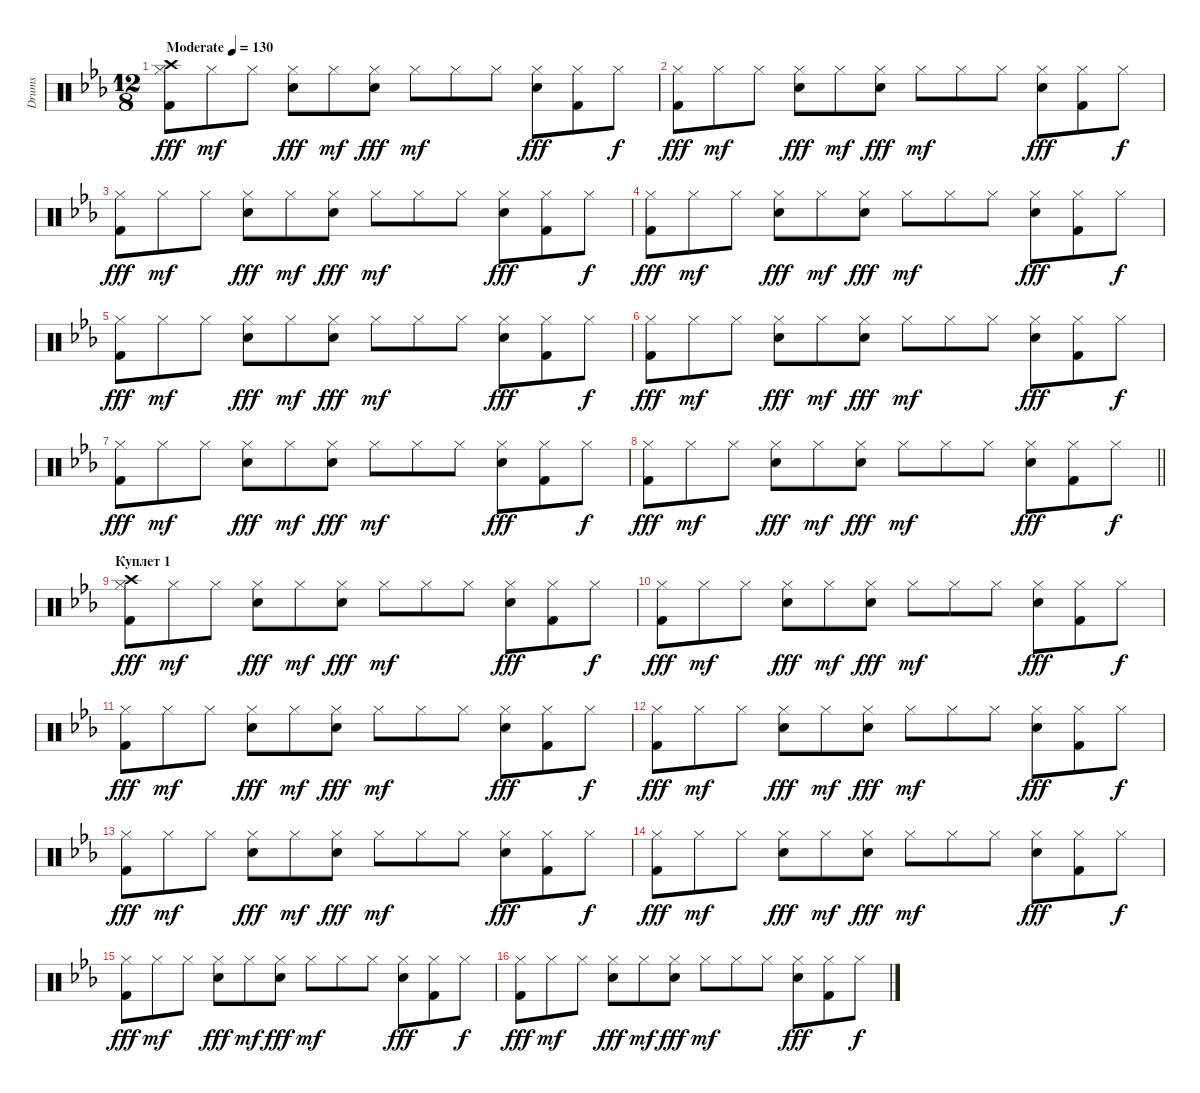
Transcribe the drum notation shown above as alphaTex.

\track ("Drums" "Drums") {instrument percussion}
\staff {score}
\articulation defaults
\ts (12 8)
\tempo (130 "Moderate")
\clef neutral
\ks cminor
("Crash high (hit)" "Hi-Hat (closed)" "Kick (hit) 2").8{dy fff} "Hi-Hat (closed)".8{dy mf} "Hi-Hat (closed)".8 ("Hi-Hat (closed)" "Electric Snare (hit)").8{dy fff} "Hi-Hat (closed)".8{dy mf} ("Hi-Hat (closed)" "Electric Snare (hit)").8{dy fff} "Hi-Hat (closed)".8{dy mf} "Hi-Hat (closed)".8 "Hi-Hat (closed)".8 ("Hi-Hat (closed)" "Electric Snare (hit)").8{dy fff} ("Hi-Hat (closed)" "Kick (hit) 2").8 "Hi-Hat (closed)".8{dy f} |
("Hi-Hat (closed)" "Kick (hit) 2").8{dy fff} "Hi-Hat (closed)".8{dy mf} "Hi-Hat (closed)".8 ("Hi-Hat (closed)" "Electric Snare (hit)").8{dy fff} "Hi-Hat (closed)".8{dy mf} ("Hi-Hat (closed)" "Electric Snare (hit)").8{dy fff} "Hi-Hat (closed)".8{dy mf} "Hi-Hat (closed)".8 "Hi-Hat (closed)".8 ("Hi-Hat (closed)" "Electric Snare (hit)").8{dy fff} ("Hi-Hat (closed)" "Kick (hit) 2").8 "Hi-Hat (closed)".8{dy f} |
("Hi-Hat (closed)" "Kick (hit) 2").8{dy fff} "Hi-Hat (closed)".8{dy mf} "Hi-Hat (closed)".8 ("Hi-Hat (closed)" "Electric Snare (hit)").8{dy fff} "Hi-Hat (closed)".8{dy mf} ("Hi-Hat (closed)" "Electric Snare (hit)").8{dy fff} "Hi-Hat (closed)".8{dy mf} "Hi-Hat (closed)".8 "Hi-Hat (closed)".8 ("Hi-Hat (closed)" "Electric Snare (hit)").8{dy fff} ("Hi-Hat (closed)" "Kick (hit) 2").8 "Hi-Hat (closed)".8{dy f} |
("Hi-Hat (closed)" "Kick (hit) 2").8{dy fff} "Hi-Hat (closed)".8{dy mf} "Hi-Hat (closed)".8 ("Hi-Hat (closed)" "Electric Snare (hit)").8{dy fff} "Hi-Hat (closed)".8{dy mf} ("Hi-Hat (closed)" "Electric Snare (hit)").8{dy fff} "Hi-Hat (closed)".8{dy mf} "Hi-Hat (closed)".8 "Hi-Hat (closed)".8 ("Hi-Hat (closed)" "Electric Snare (hit)").8{dy fff} ("Hi-Hat (closed)" "Kick (hit) 2").8 "Hi-Hat (closed)".8{dy f} |
("Hi-Hat (closed)" "Kick (hit) 2").8{dy fff} "Hi-Hat (closed)".8{dy mf} "Hi-Hat (closed)".8 ("Hi-Hat (closed)" "Electric Snare (hit)").8{dy fff} "Hi-Hat (closed)".8{dy mf} ("Hi-Hat (closed)" "Electric Snare (hit)").8{dy fff} "Hi-Hat (closed)".8{dy mf} "Hi-Hat (closed)".8 "Hi-Hat (closed)".8 ("Hi-Hat (closed)" "Electric Snare (hit)").8{dy fff} ("Hi-Hat (closed)" "Kick (hit) 2").8 "Hi-Hat (closed)".8{dy f} |
("Hi-Hat (closed)" "Kick (hit) 2").8{dy fff} "Hi-Hat (closed)".8{dy mf} "Hi-Hat (closed)".8 ("Hi-Hat (closed)" "Electric Snare (hit)").8{dy fff} "Hi-Hat (closed)".8{dy mf} ("Hi-Hat (closed)" "Electric Snare (hit)").8{dy fff} "Hi-Hat (closed)".8{dy mf} "Hi-Hat (closed)".8 "Hi-Hat (closed)".8 ("Hi-Hat (closed)" "Electric Snare (hit)").8{dy fff} ("Hi-Hat (closed)" "Kick (hit) 2").8 "Hi-Hat (closed)".8{dy f} |
("Hi-Hat (closed)" "Kick (hit) 2").8{dy fff} "Hi-Hat (closed)".8{dy mf} "Hi-Hat (closed)".8 ("Hi-Hat (closed)" "Electric Snare (hit)").8{dy fff} "Hi-Hat (closed)".8{dy mf} ("Hi-Hat (closed)" "Electric Snare (hit)").8{dy fff} "Hi-Hat (closed)".8{dy mf} "Hi-Hat (closed)".8 "Hi-Hat (closed)".8 ("Hi-Hat (closed)" "Electric Snare (hit)").8{dy fff} ("Hi-Hat (closed)" "Kick (hit) 2").8 "Hi-Hat (closed)".8{dy f} |
\barLineRight lightlight
("Hi-Hat (closed)" "Kick (hit) 2").8{dy fff} "Hi-Hat (closed)".8{dy mf} "Hi-Hat (closed)".8 ("Hi-Hat (closed)" "Electric Snare (hit)").8{dy fff} "Hi-Hat (closed)".8{dy mf} ("Hi-Hat (closed)" "Electric Snare (hit)").8{dy fff} "Hi-Hat (closed)".8{dy mf} "Hi-Hat (closed)".8 "Hi-Hat (closed)".8 ("Hi-Hat (closed)" "Electric Snare (hit)").8{dy fff} ("Hi-Hat (closed)" "Kick (hit) 2").8 "Hi-Hat (closed)".8{dy f} |
\section ("" "Куплет 1")
("Crash high (hit)" "Hi-Hat (closed)" "Kick (hit) 2").8{dy fff} "Hi-Hat (closed)".8{dy mf} "Hi-Hat (closed)".8 ("Hi-Hat (closed)" "Electric Snare (hit)").8{dy fff} "Hi-Hat (closed)".8{dy mf} ("Hi-Hat (closed)" "Electric Snare (hit)").8{dy fff} "Hi-Hat (closed)".8{dy mf} "Hi-Hat (closed)".8 "Hi-Hat (closed)".8 ("Hi-Hat (closed)" "Electric Snare (hit)").8{dy fff} ("Hi-Hat (closed)" "Kick (hit) 2").8 "Hi-Hat (closed)".8{dy f} |
("Hi-Hat (closed)" "Kick (hit) 2").8{dy fff} "Hi-Hat (closed)".8{dy mf} "Hi-Hat (closed)".8 ("Hi-Hat (closed)" "Electric Snare (hit)").8{dy fff} "Hi-Hat (closed)".8{dy mf} ("Hi-Hat (closed)" "Electric Snare (hit)").8{dy fff} "Hi-Hat (closed)".8{dy mf} "Hi-Hat (closed)".8 "Hi-Hat (closed)".8 ("Hi-Hat (closed)" "Electric Snare (hit)").8{dy fff} ("Hi-Hat (closed)" "Kick (hit) 2").8 "Hi-Hat (closed)".8{dy f} |
("Hi-Hat (closed)" "Kick (hit) 2").8{dy fff} "Hi-Hat (closed)".8{dy mf} "Hi-Hat (closed)".8 ("Hi-Hat (closed)" "Electric Snare (hit)").8{dy fff} "Hi-Hat (closed)".8{dy mf} ("Hi-Hat (closed)" "Electric Snare (hit)").8{dy fff} "Hi-Hat (closed)".8{dy mf} "Hi-Hat (closed)".8 "Hi-Hat (closed)".8 ("Hi-Hat (closed)" "Electric Snare (hit)").8{dy fff} ("Hi-Hat (closed)" "Kick (hit) 2").8 "Hi-Hat (closed)".8{dy f} |
("Hi-Hat (closed)" "Kick (hit) 2").8{dy fff} "Hi-Hat (closed)".8{dy mf} "Hi-Hat (closed)".8 ("Hi-Hat (closed)" "Electric Snare (hit)").8{dy fff} "Hi-Hat (closed)".8{dy mf} ("Hi-Hat (closed)" "Electric Snare (hit)").8{dy fff} "Hi-Hat (closed)".8{dy mf} "Hi-Hat (closed)".8 "Hi-Hat (closed)".8 ("Hi-Hat (closed)" "Electric Snare (hit)").8{dy fff} ("Hi-Hat (closed)" "Kick (hit) 2").8 "Hi-Hat (closed)".8{dy f} |
("Hi-Hat (closed)" "Kick (hit) 2").8{dy fff} "Hi-Hat (closed)".8{dy mf} "Hi-Hat (closed)".8 ("Hi-Hat (closed)" "Electric Snare (hit)").8{dy fff} "Hi-Hat (closed)".8{dy mf} ("Hi-Hat (closed)" "Electric Snare (hit)").8{dy fff} "Hi-Hat (closed)".8{dy mf} "Hi-Hat (closed)".8 "Hi-Hat (closed)".8 ("Hi-Hat (closed)" "Electric Snare (hit)").8{dy fff} ("Hi-Hat (closed)" "Kick (hit) 2").8 "Hi-Hat (closed)".8{dy f} |
("Hi-Hat (closed)" "Kick (hit) 2").8{dy fff} "Hi-Hat (closed)".8{dy mf} "Hi-Hat (closed)".8 ("Hi-Hat (closed)" "Electric Snare (hit)").8{dy fff} "Hi-Hat (closed)".8{dy mf} ("Hi-Hat (closed)" "Electric Snare (hit)").8{dy fff} "Hi-Hat (closed)".8{dy mf} "Hi-Hat (closed)".8 "Hi-Hat (closed)".8 ("Hi-Hat (closed)" "Electric Snare (hit)").8{dy fff} ("Hi-Hat (closed)" "Kick (hit) 2").8 "Hi-Hat (closed)".8{dy f} |
("Hi-Hat (closed)" "Kick (hit) 2").8{dy fff} "Hi-Hat (closed)".8{dy mf} "Hi-Hat (closed)".8 ("Hi-Hat (closed)" "Electric Snare (hit)").8{dy fff} "Hi-Hat (closed)".8{dy mf} ("Hi-Hat (closed)" "Electric Snare (hit)").8{dy fff} "Hi-Hat (closed)".8{dy mf} "Hi-Hat (closed)".8 "Hi-Hat (closed)".8 ("Hi-Hat (closed)" "Electric Snare (hit)").8{dy fff} ("Hi-Hat (closed)" "Kick (hit) 2").8 "Hi-Hat (closed)".8{dy f} |
("Hi-Hat (closed)" "Kick (hit) 2").8{dy fff} "Hi-Hat (closed)".8{dy mf} "Hi-Hat (closed)".8 ("Hi-Hat (closed)" "Electric Snare (hit)").8{dy fff} "Hi-Hat (closed)".8{dy mf} ("Hi-Hat (closed)" "Electric Snare (hit)").8{dy fff} "Hi-Hat (closed)".8{dy mf} "Hi-Hat (closed)".8 "Hi-Hat (closed)".8 ("Hi-Hat (closed)" "Electric Snare (hit)").8{dy fff} ("Hi-Hat (closed)" "Kick (hit) 2").8 "Hi-Hat (closed)".8{dy f}
